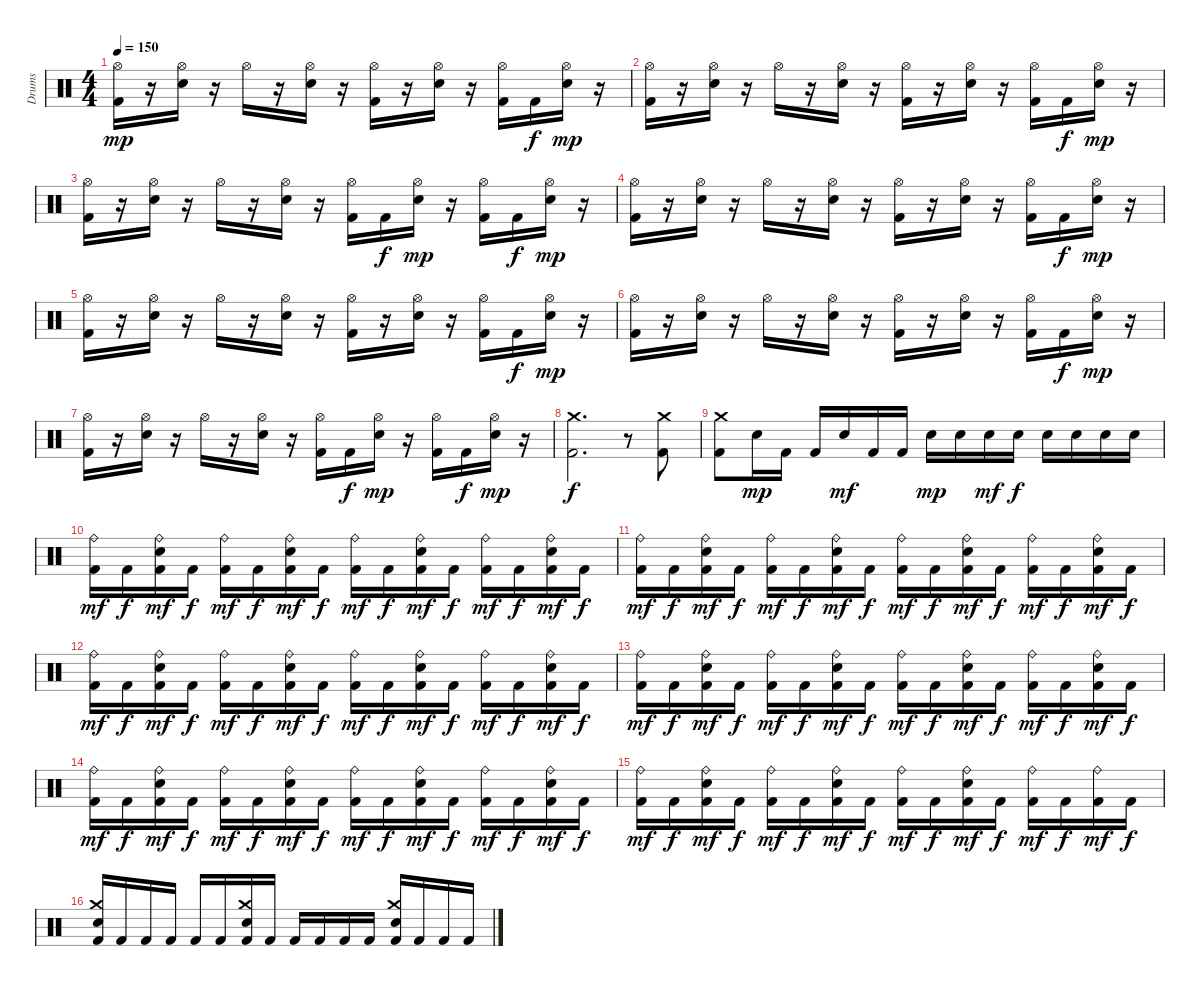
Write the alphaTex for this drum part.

\track ("Drums" "Drums") {instrument percussion}
\staff {score}
\articulation defaults
\ts (4 4)
\tempo 150
\clef neutral
\ks c
("Kick (hit) 2" "Hi-Hat (open)").16{dy mp} r.16 ("Electric Snare (hit)" "Hi-Hat (open)").16 r.16 "Hi-Hat (open)".16 r.16 ("Electric Snare (hit)" "Hi-Hat (open)").16 r.16 ("Kick (hit) 2" "Hi-Hat (open)").16 r.16 ("Electric Snare (hit)" "Hi-Hat (open)").16 r.16 ("Kick (hit) 2" "Hi-Hat (open)").16 "Kick (hit) 2".16{dy f} ("Electric Snare (hit)" "Hi-Hat (open)").16{dy mp} r.16 |
("Kick (hit) 2" "Hi-Hat (open)").16 r.16 ("Electric Snare (hit)" "Hi-Hat (open)").16 r.16 "Hi-Hat (open)".16 r.16 ("Electric Snare (hit)" "Hi-Hat (open)").16 r.16 ("Kick (hit) 2" "Hi-Hat (open)").16 r.16 ("Electric Snare (hit)" "Hi-Hat (open)").16 r.16 ("Kick (hit) 2" "Hi-Hat (open)").16 "Kick (hit) 2".16{dy f} ("Electric Snare (hit)" "Hi-Hat (open)").16{dy mp} r.16 |
("Kick (hit) 2" "Hi-Hat (open)").16 r.16 ("Electric Snare (hit)" "Hi-Hat (open)").16 r.16 "Hi-Hat (open)".16 r.16 ("Electric Snare (hit)" "Hi-Hat (open)").16 r.16 ("Kick (hit) 2" "Hi-Hat (open)").16 "Kick (hit) 2".16{dy f} ("Electric Snare (hit)" "Hi-Hat (open)").16{dy mp} r.16 ("Kick (hit) 2" "Hi-Hat (open)").16 "Kick (hit) 2".16{dy f} ("Electric Snare (hit)" "Hi-Hat (open)").16{dy mp} r.16 |
("Kick (hit) 2" "Hi-Hat (open)").16 r.16 ("Electric Snare (hit)" "Hi-Hat (open)").16 r.16 "Hi-Hat (open)".16 r.16 ("Electric Snare (hit)" "Hi-Hat (open)").16 r.16 ("Kick (hit) 2" "Hi-Hat (open)").16 r.16 ("Electric Snare (hit)" "Hi-Hat (open)").16 r.16 ("Kick (hit) 2" "Hi-Hat (open)").16 "Kick (hit) 2".16{dy f} ("Electric Snare (hit)" "Hi-Hat (open)").16{dy mp} r.16 |
("Kick (hit) 2" "Hi-Hat (open)").16 r.16 ("Electric Snare (hit)" "Hi-Hat (open)").16 r.16 "Hi-Hat (open)".16 r.16 ("Electric Snare (hit)" "Hi-Hat (open)").16 r.16 ("Kick (hit) 2" "Hi-Hat (open)").16 r.16 ("Electric Snare (hit)" "Hi-Hat (open)").16 r.16 ("Kick (hit) 2" "Hi-Hat (open)").16 "Kick (hit) 2".16{dy f} ("Electric Snare (hit)" "Hi-Hat (open)").16{dy mp} r.16 |
("Kick (hit) 2" "Hi-Hat (open)").16 r.16 ("Electric Snare (hit)" "Hi-Hat (open)").16 r.16 "Hi-Hat (open)".16 r.16 ("Electric Snare (hit)" "Hi-Hat (open)").16 r.16 ("Kick (hit) 2" "Hi-Hat (open)").16 r.16 ("Electric Snare (hit)" "Hi-Hat (open)").16 r.16 ("Kick (hit) 2" "Hi-Hat (open)").16 "Kick (hit) 2".16{dy f} ("Electric Snare (hit)" "Hi-Hat (open)").16{dy mp} r.16 |
("Kick (hit) 2" "Hi-Hat (open)").16 r.16 ("Electric Snare (hit)" "Hi-Hat (open)").16 r.16 "Hi-Hat (open)".16 r.16 ("Electric Snare (hit)" "Hi-Hat (open)").16 r.16 ("Kick (hit) 2" "Hi-Hat (open)").16 "Kick (hit) 2".16{dy f} ("Electric Snare (hit)" "Hi-Hat (open)").16{dy mp} r.16 ("Kick (hit) 2" "Hi-Hat (open)").16 "Kick (hit) 2".16{dy f} ("Electric Snare (hit)" "Hi-Hat (open)").16{dy mp} r.16 |
("Kick (hit) 2" "Crash medium (hit)").2{d dy f} r.8 ("Kick (hit) 2" "Crash medium (hit)").8 |
("Kick (hit) 2" "Crash medium (hit)").8 "Snare (hit) 2".16{dy mp} "Kick (hit) 2".16 "Kick (hit) 2".16 "Snare (hit) 2".16{dy mf} "Kick (hit) 2".16 "Kick (hit) 2".16 "Snare (hit) 2".16{dy mp} "Snare (hit) 2".16 "Snare (hit) 2".16{dy mf} "Snare (hit) 2".16{dy f} "Snare (hit) 2".16 "Snare (hit) 2".16 "Snare (hit) 2".16 "Snare (hit) 2".16 |
("Kick (hit) 2" "Ride (bell)").16{dy mf} "Kick (hit) 2".16{dy f} ("Kick (hit) 2" "Snare (hit) 2" "Ride (bell)").16{dy mf} "Kick (hit) 2".16{dy f} ("Kick (hit) 2" "Ride (bell)").16{dy mf} "Kick (hit) 2".16{dy f} ("Kick (hit) 2" "Snare (hit) 2" "Ride (bell)").16{dy mf} "Kick (hit) 2".16{dy f} ("Kick (hit) 2" "Ride (bell)").16{dy mf} "Kick (hit) 2".16{dy f} ("Kick (hit) 2" "Snare (hit) 2" "Ride (bell)").16{dy mf} "Kick (hit) 2".16{dy f} ("Kick (hit) 2" "Ride (bell)").16{dy mf} "Kick (hit) 2".16{dy f} ("Kick (hit) 2" "Snare (hit) 2" "Ride (bell)").16{dy mf} "Kick (hit) 2".16{dy f} |
("Kick (hit) 2" "Ride (bell)").16{dy mf} "Kick (hit) 2".16{dy f} ("Kick (hit) 2" "Snare (hit) 2" "Ride (bell)").16{dy mf} "Kick (hit) 2".16{dy f} ("Kick (hit) 2" "Ride (bell)").16{dy mf} "Kick (hit) 2".16{dy f} ("Kick (hit) 2" "Snare (hit) 2" "Ride (bell)").16{dy mf} "Kick (hit) 2".16{dy f} ("Kick (hit) 2" "Ride (bell)").16{dy mf} "Kick (hit) 2".16{dy f} ("Kick (hit) 2" "Snare (hit) 2" "Ride (bell)").16{dy mf} "Kick (hit) 2".16{dy f} ("Kick (hit) 2" "Ride (bell)").16{dy mf} "Kick (hit) 2".16{dy f} ("Kick (hit) 2" "Snare (hit) 2" "Ride (bell)").16{dy mf} "Kick (hit) 2".16{dy f} |
("Kick (hit) 2" "Ride (bell)").16{dy mf} "Kick (hit) 2".16{dy f} ("Kick (hit) 2" "Snare (hit) 2" "Ride (bell)").16{dy mf} "Kick (hit) 2".16{dy f} ("Kick (hit) 2" "Ride (bell)").16{dy mf} "Kick (hit) 2".16{dy f} ("Kick (hit) 2" "Snare (hit) 2" "Ride (bell)").16{dy mf} "Kick (hit) 2".16{dy f} ("Kick (hit) 2" "Ride (bell)").16{dy mf} "Kick (hit) 2".16{dy f} ("Kick (hit) 2" "Snare (hit) 2" "Ride (bell)").16{dy mf} "Kick (hit) 2".16{dy f} ("Kick (hit) 2" "Ride (bell)").16{dy mf} "Kick (hit) 2".16{dy f} ("Kick (hit) 2" "Snare (hit) 2" "Ride (bell)").16{dy mf} "Kick (hit) 2".16{dy f} |
("Kick (hit) 2" "Ride (bell)").16{dy mf} "Kick (hit) 2".16{dy f} ("Kick (hit) 2" "Snare (hit) 2" "Ride (bell)").16{dy mf} "Kick (hit) 2".16{dy f} ("Kick (hit) 2" "Ride (bell)").16{dy mf} "Kick (hit) 2".16{dy f} ("Kick (hit) 2" "Snare (hit) 2" "Ride (bell)").16{dy mf} "Kick (hit) 2".16{dy f} ("Kick (hit) 2" "Ride (bell)").16{dy mf} "Kick (hit) 2".16{dy f} ("Kick (hit) 2" "Snare (hit) 2" "Ride (bell)").16{dy mf} "Kick (hit) 2".16{dy f} ("Kick (hit) 2" "Ride (bell)").16{dy mf} "Kick (hit) 2".16{dy f} ("Kick (hit) 2" "Snare (hit) 2" "Ride (bell)").16{dy mf} "Kick (hit) 2".16{dy f} |
("Kick (hit) 2" "Ride (bell)").16{dy mf} "Kick (hit) 2".16{dy f} ("Kick (hit) 2" "Snare (hit) 2" "Ride (bell)").16{dy mf} "Kick (hit) 2".16{dy f} ("Kick (hit) 2" "Ride (bell)").16{dy mf} "Kick (hit) 2".16{dy f} ("Kick (hit) 2" "Snare (hit) 2" "Ride (bell)").16{dy mf} "Kick (hit) 2".16{dy f} ("Kick (hit) 2" "Ride (bell)").16{dy mf} "Kick (hit) 2".16{dy f} ("Kick (hit) 2" "Snare (hit) 2" "Ride (bell)").16{dy mf} "Kick (hit) 2".16{dy f} ("Kick (hit) 2" "Ride (bell)").16{dy mf} "Kick (hit) 2".16{dy f} ("Kick (hit) 2" "Snare (hit) 2" "Ride (bell)").16{dy mf} "Kick (hit) 2".16{dy f} |
("Kick (hit) 2" "Ride (bell)").16{dy mf} "Kick (hit) 2".16{dy f} ("Kick (hit) 2" "Snare (hit) 2" "Ride (bell)").16{dy mf} "Kick (hit) 2".16{dy f} ("Kick (hit) 2" "Ride (bell)").16{dy mf} "Kick (hit) 2".16{dy f} ("Kick (hit) 2" "Snare (hit) 2" "Ride (bell)").16{dy mf} "Kick (hit) 2".16{dy f} ("Kick (hit) 2" "Ride (bell)").16{dy mf} "Kick (hit) 2".16{dy f} ("Kick (hit) 2" "Snare (hit) 2" "Ride (bell)").16{dy mf} "Kick (hit) 2".16{dy f} ("Kick (hit) 2" "Ride (bell)").16{dy mf} "Kick (hit) 2".16{dy f} ("Kick (hit) 2" "Ride (bell)").16{dy mf} "Kick (hit) 2".16{dy f} |
("Kick (hit) 2" "Snare (hit) 2" "Crash medium (hit)").16 "Kick (hit) 2".16 "Kick (hit) 2".16 "Kick (hit) 2".16 "Kick (hit) 2".16 "Kick (hit) 2".16 ("Kick (hit) 2" "Snare (hit) 2" "Crash medium (hit)").16 "Kick (hit) 2".16 "Kick (hit) 2".16 "Kick (hit) 2".16 "Kick (hit) 2".16 "Kick (hit) 2".16 ("Kick (hit) 2" "Snare (hit) 2" "Crash medium (hit)").16 "Kick (hit) 2".16 "Kick (hit) 2".16 "Kick (hit) 2".16
